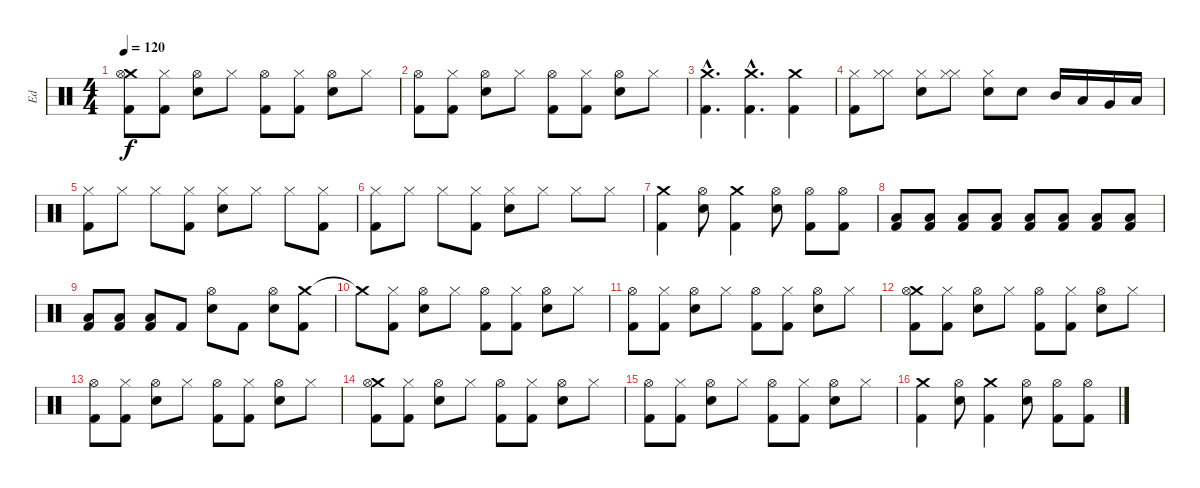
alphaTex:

\track ("Ed" "Ed") {instrument percussion}
\staff {score}
\articulation defaults
\ts (4 4)
\tempo 120
\clef neutral
\ks c
("Crash medium (hit)" "Hi-Hat (open)" "Kick (hit) 2").8{dy f} ("Hi-Hat (closed)" "Kick (hit) 2").8 ("Hi-Hat (open)" "Snare (hit) 2").8 "Hi-Hat (closed)".8 ("Hi-Hat (open)" "Kick (hit) 2").8 ("Hi-Hat (closed)" "Kick (hit) 2").8 ("Hi-Hat (open)" "Snare (hit) 2").8 "Hi-Hat (closed)".8 |
("Hi-Hat (open)" "Kick (hit) 2").8 ("Hi-Hat (closed)" "Kick (hit) 2").8 ("Hi-Hat (open)" "Snare (hit) 2").8 "Hi-Hat (closed)".8 ("Hi-Hat (open)" "Kick (hit) 2").8 ("Hi-Hat (closed)" "Kick (hit) 2").8 ("Hi-Hat (open)" "Snare (hit) 2").8 "Hi-Hat (closed)".8 |
("Crash medium (hit)"{hac} "Kick (hit) 2"{hac}).4{d} ("Crash medium (hit)"{hac} "Kick (hit) 2"{hac}).4{d} ("Crash medium (hit)" "Kick (hit) 2").4 |
("Hi-Hat (closed)" "Kick (hit) 2").8 ("Hi-Hat (closed)" "Hi-Hat (closed)").8 ("Hi-Hat (closed)" "Snare (hit) 2").8 ("Hi-Hat (closed)" "Hi-Hat (closed)").8 ("Hi-Hat (closed)" "Snare (hit) 2").8 "Snare (hit) 2".8 "Mid Tom (hit)".16 "Low Tom (hit)".16 "Very Low Tom (hit)".16 "Low Floor Tom (hit)".16 |
("Hi-Hat (closed)" "Kick (hit) 2").8 "Hi-Hat (closed)".8 "Hi-Hat (closed)".8 ("Hi-Hat (closed)" "Kick (hit) 2").8 ("Hi-Hat (closed)" "Snare (hit) 2").8 "Hi-Hat (closed)".8 "Hi-Hat (closed)".8 ("Kick (hit) 2" "Hi-Hat (closed)").8 |
("Hi-Hat (closed)" "Kick (hit) 2").8 "Hi-Hat (closed)".8 "Hi-Hat (closed)".8 ("Kick (hit) 2" "Hi-Hat (closed)").8 ("Snare (hit) 2" "Hi-Hat (closed)").8 "Hi-Hat (closed)".8 "Hi-Hat (closed)".8 "Hi-Hat (closed)".8 |
("Kick (hit) 2" "Crash medium (hit)").4 ("Snare (hit) 2" "Hi-Hat (open)").8 ("Kick (hit) 2" "Crash medium (hit)").4 ("Hi-Hat (open)" "Snare (hit) 2").8 ("Kick (hit) 2" "Hi-Hat (open)").8 ("Kick (hit) 2" "Hi-Hat (open)").8 |
("Low Floor Tom (hit)" "Kick (hit) 2").8 ("Low Floor Tom (hit)" "Kick (hit) 2").8 ("Low Floor Tom (hit)" "Kick (hit) 2").8 ("Low Floor Tom (hit)" "Kick (hit) 2").8 ("Low Floor Tom (hit)" "Kick (hit) 2").8 ("Low Floor Tom (hit)" "Kick (hit) 2").8 ("Low Floor Tom (hit)" "Kick (hit) 2").8 ("Low Floor Tom (hit)" "Kick (hit) 2").8 |
("Low Floor Tom (hit)" "Kick (hit) 2").8 ("Low Floor Tom (hit)" "Kick (hit) 2").8 ("Low Floor Tom (hit)" "Kick (hit) 2").8 "Kick (hit) 2".8 ("Hi-Hat (open)" "Snare (hit) 2").8 "Kick (hit) 2".8 ("Hi-Hat (open)" "Snare (hit) 2").8 ("Crash medium (hit)" "Kick (hit) 2").8 |
"Crash medium (hit)"{t}.8 ("Hi-Hat (closed)" "Kick (hit) 2").8 ("Hi-Hat (open)" "Snare (hit) 2").8 "Hi-Hat (closed)".8 ("Kick (hit) 2" "Hi-Hat (open)").8 ("Kick (hit) 2" "Hi-Hat (closed)").8 ("Snare (hit) 2" "Hi-Hat (open)").8 "Hi-Hat (closed)".8 |
("Hi-Hat (open)" "Kick (hit) 2").8 ("Hi-Hat (closed)" "Kick (hit) 2").8 ("Hi-Hat (open)" "Snare (hit) 2").8 "Hi-Hat (closed)".8 ("Hi-Hat (open)" "Kick (hit) 2").8 ("Hi-Hat (closed)" "Kick (hit) 2").8 ("Hi-Hat (open)" "Snare (hit) 2").8 "Hi-Hat (closed)".8 |
("Crash medium (hit)" "Hi-Hat (open)" "Kick (hit) 2").8 ("Hi-Hat (closed)" "Kick (hit) 2").8 ("Hi-Hat (open)" "Snare (hit) 2").8 "Hi-Hat (closed)".8 ("Hi-Hat (open)" "Kick (hit) 2").8 ("Hi-Hat (closed)" "Kick (hit) 2").8 ("Hi-Hat (open)" "Snare (hit) 2").8 "Hi-Hat (closed)".8 |
("Hi-Hat (open)" "Kick (hit) 2").8 ("Hi-Hat (closed)" "Kick (hit) 2").8 ("Hi-Hat (open)" "Snare (hit) 2").8 "Hi-Hat (closed)".8 ("Hi-Hat (open)" "Kick (hit) 2").8 ("Hi-Hat (closed)" "Kick (hit) 2").8 ("Hi-Hat (open)" "Snare (hit) 2").8 "Hi-Hat (closed)".8 |
("Crash medium (hit)" "Hi-Hat (open)" "Kick (hit) 2").8 ("Hi-Hat (closed)" "Kick (hit) 2").8 ("Hi-Hat (open)" "Snare (hit) 2").8 "Hi-Hat (closed)".8 ("Hi-Hat (open)" "Kick (hit) 2").8 ("Hi-Hat (closed)" "Kick (hit) 2").8 ("Hi-Hat (open)" "Snare (hit) 2").8 "Hi-Hat (closed)".8 |
("Hi-Hat (open)" "Kick (hit) 2").8 ("Hi-Hat (closed)" "Kick (hit) 2").8 ("Hi-Hat (open)" "Snare (hit) 2").8 "Hi-Hat (closed)".8 ("Hi-Hat (open)" "Kick (hit) 2").8 ("Hi-Hat (closed)" "Kick (hit) 2").8 ("Hi-Hat (open)" "Snare (hit) 2").8 "Hi-Hat (closed)".8 |
("Kick (hit) 2" "Crash medium (hit)").4 ("Snare (hit) 2" "Hi-Hat (open)").8 ("Kick (hit) 2" "Crash medium (hit)").4 ("Hi-Hat (open)" "Snare (hit) 2").8 ("Kick (hit) 2" "Hi-Hat (open)").8 ("Kick (hit) 2" "Hi-Hat (open)").8
